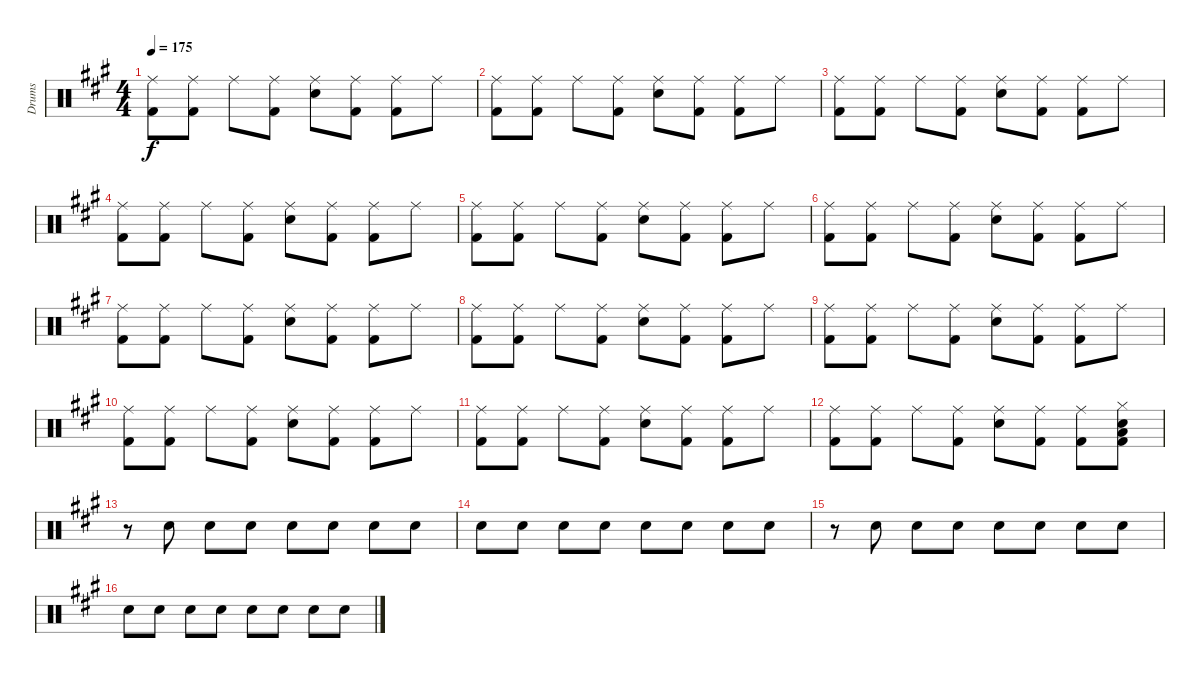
\track ("Drums" "Drums") {instrument percussion}
\staff {score}
\articulation defaults
\ts (4 4)
\tempo 175
\clef neutral
\ks f#minor
("Ride (middle)" "Kick (hit) 2").8{dy f} ("Ride (middle)" "Kick (hit) 2").8 "Ride (middle)".8 ("Ride (middle)" "Kick (hit) 2").8 ("Ride (middle)" "Snare (hit) 2").8 ("Ride (middle)" "Kick (hit) 2").8 ("Ride (middle)" "Kick (hit) 2").8 "Ride (middle)".8 |
("Ride (middle)" "Kick (hit) 2").8 ("Ride (middle)" "Kick (hit) 2").8 "Ride (middle)".8 ("Ride (middle)" "Kick (hit) 2").8 ("Ride (middle)" "Snare (hit) 2").8 ("Ride (middle)" "Kick (hit) 2").8 ("Ride (middle)" "Kick (hit) 2").8 "Ride (middle)".8 |
("Ride (middle)" "Kick (hit) 2").8 ("Ride (middle)" "Kick (hit) 2").8 "Ride (middle)".8 ("Ride (middle)" "Kick (hit) 2").8 ("Ride (middle)" "Snare (hit) 2").8 ("Ride (middle)" "Kick (hit) 2").8 ("Ride (middle)" "Kick (hit) 2").8 "Ride (middle)".8 |
("Ride (middle)" "Kick (hit) 2").8 ("Ride (middle)" "Kick (hit) 2").8 "Ride (middle)".8 ("Ride (middle)" "Kick (hit) 2").8 ("Ride (middle)" "Snare (hit) 2").8 ("Ride (middle)" "Kick (hit) 2").8 ("Ride (middle)" "Kick (hit) 2").8 "Ride (middle)".8 |
("Ride (middle)" "Kick (hit) 2").8 ("Ride (middle)" "Kick (hit) 2").8 "Ride (middle)".8 ("Ride (middle)" "Kick (hit) 2").8 ("Ride (middle)" "Snare (hit) 2").8 ("Ride (middle)" "Kick (hit) 2").8 ("Ride (middle)" "Kick (hit) 2").8 "Ride (middle)".8 |
("Ride (middle)" "Kick (hit) 2").8 ("Ride (middle)" "Kick (hit) 2").8 "Ride (middle)".8 ("Ride (middle)" "Kick (hit) 2").8 ("Ride (middle)" "Snare (hit) 2").8 ("Ride (middle)" "Kick (hit) 2").8 ("Ride (middle)" "Kick (hit) 2").8 "Ride (middle)".8 |
("Ride (middle)" "Kick (hit) 2").8 ("Ride (middle)" "Kick (hit) 2").8 "Ride (middle)".8 ("Ride (middle)" "Kick (hit) 2").8 ("Ride (middle)" "Snare (hit) 2").8 ("Ride (middle)" "Kick (hit) 2").8 ("Ride (middle)" "Kick (hit) 2").8 "Ride (middle)".8 |
("Ride (middle)" "Kick (hit) 2").8 ("Ride (middle)" "Kick (hit) 2").8 "Ride (middle)".8 ("Ride (middle)" "Kick (hit) 2").8 ("Ride (middle)" "Snare (hit) 2").8 ("Ride (middle)" "Kick (hit) 2").8 ("Ride (middle)" "Kick (hit) 2").8 "Ride (middle)".8 |
("Ride (middle)" "Kick (hit) 2").8 ("Ride (middle)" "Kick (hit) 2").8 "Ride (middle)".8 ("Ride (middle)" "Kick (hit) 2").8 ("Ride (middle)" "Snare (hit) 2").8 ("Ride (middle)" "Kick (hit) 2").8 ("Ride (middle)" "Kick (hit) 2").8 "Ride (middle)".8 |
("Ride (middle)" "Kick (hit) 2").8 ("Ride (middle)" "Kick (hit) 2").8 "Ride (middle)".8 ("Ride (middle)" "Kick (hit) 2").8 ("Ride (middle)" "Snare (hit) 2").8 ("Ride (middle)" "Kick (hit) 2").8 ("Ride (middle)" "Kick (hit) 2").8 "Ride (middle)".8 |
("Ride (middle)" "Kick (hit) 2").8 ("Ride (middle)" "Kick (hit) 2").8 "Ride (middle)".8 ("Ride (middle)" "Kick (hit) 2").8 ("Ride (middle)" "Snare (hit) 2").8 ("Ride (middle)" "Kick (hit) 2").8 ("Ride (middle)" "Kick (hit) 2").8 "Ride (middle)".8 |
("Ride (middle)" "Kick (hit) 2").8 ("Ride (middle)" "Kick (hit) 2").8 "Ride (middle)".8 ("Ride (middle)" "Kick (hit) 2").8 ("Ride (middle)" "Snare (hit) 2").8 ("Ride (middle)" "Kick (hit) 2").8 ("Ride (middle)" "Kick (hit) 2").8 ("Hi-Hat (closed)" "Snare (hit) 2" "Low Tom (hit)" "Kick (hit) 2").8 |
r.8 "Snare (hit) 2".8 "Snare (hit) 2".8 "Snare (hit) 2".8 "Snare (hit) 2".8 "Snare (hit) 2".8 "Snare (hit) 2".8 "Snare (hit) 2".8 |
"Snare (hit) 2".8 "Snare (hit) 2".8 "Snare (hit) 2".8 "Snare (hit) 2".8 "Snare (hit) 2".8 "Snare (hit) 2".8 "Snare (hit) 2".8 "Snare (hit) 2".8 |
r.8 "Snare (hit) 2".8 "Snare (hit) 2".8 "Snare (hit) 2".8 "Snare (hit) 2".8 "Snare (hit) 2".8 "Snare (hit) 2".8 "Snare (hit) 2".8 |
"Snare (hit) 2".8 "Snare (hit) 2".8 "Snare (hit) 2".8 "Snare (hit) 2".8 "Snare (hit) 2".8 "Snare (hit) 2".8 "Snare (hit) 2".8 "Snare (hit) 2".8
